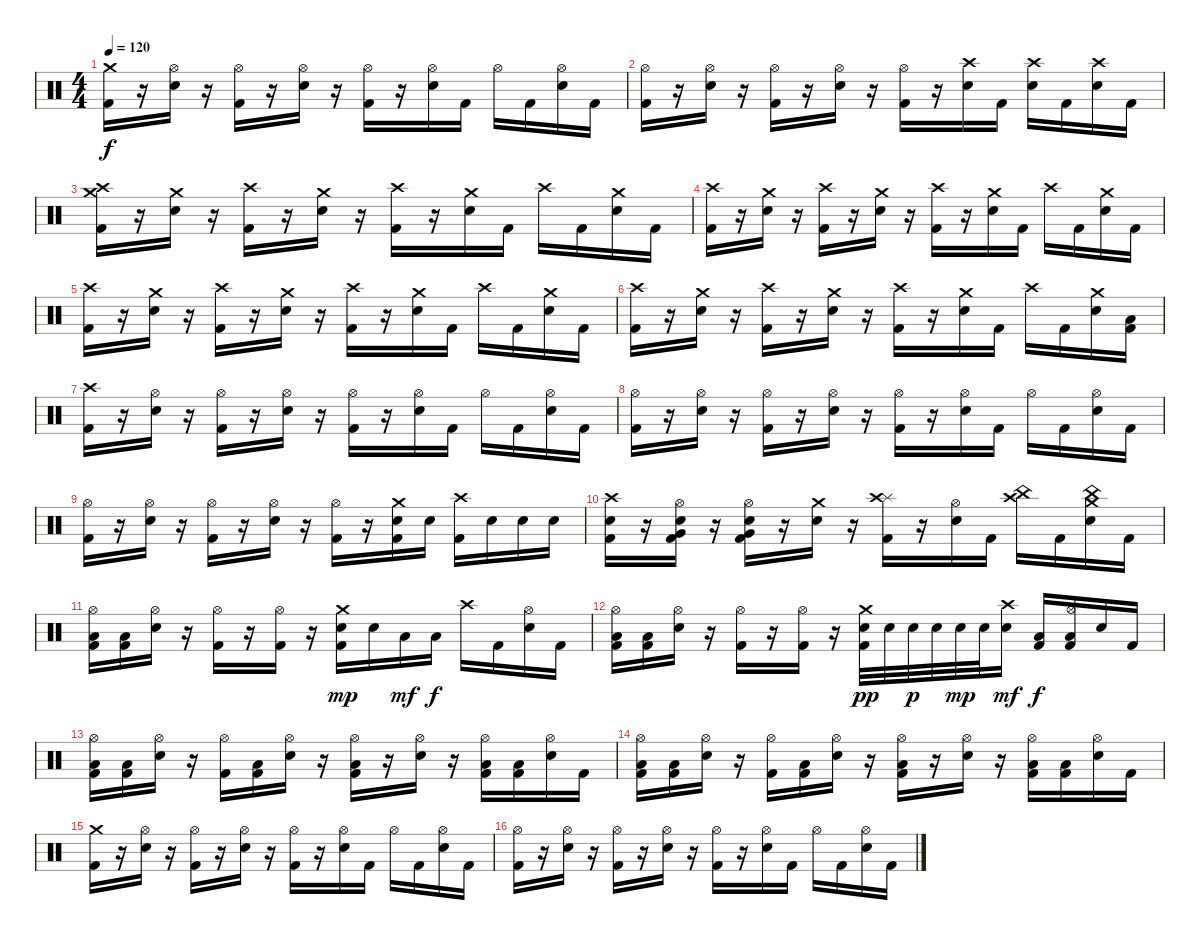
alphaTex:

\track "" {instrument percussion}
\staff {score}
\articulation defaults
\ts (4 4)
\tempo 120
\clef neutral
\ks c
("Crash medium (hit)" "Kick (hit) 2").16{dy f} r.16 ("Hi-Hat (open)" "Electric Snare (hit)").16 r.16 ("Hi-Hat (open)" "Kick (hit) 2").16 r.16 ("Hi-Hat (open)" "Electric Snare (hit)").16 r.16 ("Hi-Hat (open)" "Kick (hit) 2").16 r.16 ("Hi-Hat (open)" "Electric Snare (hit)").16 "Kick (hit) 2".16 "Hi-Hat (open)".16 "Kick (hit) 2".16 ("Hi-Hat (open)" "Electric Snare (hit)").16 "Kick (hit) 2".16 |
("Hi-Hat (open)" "Kick (hit) 2").16 r.16 ("Hi-Hat (open)" "Electric Snare (hit)").16 r.16 ("Hi-Hat (open)" "Kick (hit) 2").16 r.16 ("Hi-Hat (open)" "Electric Snare (hit)").16 r.16 ("Hi-Hat (open)" "Kick (hit) 2").16 r.16 ("Crash high (hit)" "Electric Snare (hit)").16 "Kick (hit) 2".16 ("Crash high (hit)" "Electric Snare (hit)").16 "Kick (hit) 2".16 ("Crash high (hit)" "Electric Snare (hit)").16 "Kick (hit) 2".16 |
("Crash medium (hit)" "Crash high (hit)" "Kick (hit) 2").16 r.16 ("Crash medium (hit)" "Electric Snare (hit)").16 r.16 ("Crash high (hit)" "Kick (hit) 2").16 r.16 ("Crash medium (hit)" "Electric Snare (hit)").16 r.16 ("Crash high (hit)" "Kick (hit) 2").16 r.16 ("Crash medium (hit)" "Electric Snare (hit)").16 "Kick (hit) 2".16 "Crash high (hit)".16 "Kick (hit) 2".16 ("Crash medium (hit)" "Electric Snare (hit)").16 "Kick (hit) 2".16 |
("Crash high (hit)" "Kick (hit) 2").16 r.16 ("Crash medium (hit)" "Electric Snare (hit)").16 r.16 ("Crash high (hit)" "Kick (hit) 2").16 r.16 ("Crash medium (hit)" "Electric Snare (hit)").16 r.16 ("Crash high (hit)" "Kick (hit) 2").16 r.16 ("Crash medium (hit)" "Electric Snare (hit)").16 "Kick (hit) 2".16 "Crash high (hit)".16 "Kick (hit) 2".16 ("Crash medium (hit)" "Electric Snare (hit)").16 "Kick (hit) 2".16 |
("Crash high (hit)" "Kick (hit) 2").16 r.16 ("Crash medium (hit)" "Electric Snare (hit)").16 r.16 ("Crash high (hit)" "Kick (hit) 2").16 r.16 ("Crash medium (hit)" "Electric Snare (hit)").16 r.16 ("Crash high (hit)" "Kick (hit) 2").16 r.16 ("Crash medium (hit)" "Electric Snare (hit)").16 "Kick (hit) 2".16 "Crash high (hit)".16 "Kick (hit) 2".16 ("Crash medium (hit)" "Electric Snare (hit)").16 "Kick (hit) 2".16 |
("Crash high (hit)" "Kick (hit) 2").16 r.16 ("Crash medium (hit)" "Electric Snare (hit)").16 r.16 ("Crash high (hit)" "Kick (hit) 2").16 r.16 ("Crash medium (hit)" "Electric Snare (hit)").16 r.16 ("Crash high (hit)" "Kick (hit) 2").16 r.16 ("Crash medium (hit)" "Electric Snare (hit)").16 "Kick (hit) 2".16 "Crash high (hit)".16 "Kick (hit) 2".16 ("Crash medium (hit)" "Electric Snare (hit)").16 ("Low Tom (hit)" "Kick (hit) 2").16 |
("Crash high (hit)" "Kick (hit) 2").16 r.16 ("Hi-Hat (open)" "Electric Snare (hit)").16 r.16 ("Hi-Hat (open)" "Kick (hit) 2").16 r.16 ("Hi-Hat (open)" "Electric Snare (hit)").16 r.16 ("Hi-Hat (open)" "Kick (hit) 2").16 r.16 ("Hi-Hat (open)" "Electric Snare (hit)").16 "Kick (hit) 2".16 "Hi-Hat (open)".16 "Kick (hit) 2".16 ("Hi-Hat (open)" "Electric Snare (hit)").16 "Kick (hit) 2".16 |
("Hi-Hat (open)" "Kick (hit) 2").16 r.16 ("Hi-Hat (open)" "Electric Snare (hit)").16 r.16 ("Hi-Hat (open)" "Kick (hit) 2").16 r.16 ("Hi-Hat (open)" "Electric Snare (hit)").16 r.16 ("Hi-Hat (open)" "Kick (hit) 2").16 r.16 ("Hi-Hat (open)" "Electric Snare (hit)").16 "Kick (hit) 2".16 "Hi-Hat (open)".16 "Kick (hit) 2".16 ("Hi-Hat (open)" "Electric Snare (hit)").16 "Kick (hit) 2".16 |
("Hi-Hat (open)" "Kick (hit) 2").16 r.16 ("Hi-Hat (open)" "Electric Snare (hit)").16 r.16 ("Hi-Hat (open)" "Kick (hit) 2").16 r.16 ("Hi-Hat (open)" "Electric Snare (hit)").16 r.16 ("Hi-Hat (open)" "Kick (hit) 2").16 r.16 ("Crash medium (hit)" "Electric Snare (hit)" "Kick (hit) 2").16 "Electric Snare (hit)".16 ("Crash high (hit)" "Kick (hit) 2").16 "Electric Snare (hit)".16 "Electric Snare (hit)".16 "Electric Snare (hit)".16 |
("Crash high (hit)" "Electric Snare (hit)" "Kick (hit) 2").16 r.16 ("Hi-Hat (open)" "Electric Snare (hit)" "Very Low Tom (hit)" "Kick (hit) 2").16 r.16 ("Hi-Hat (open)" "Electric Snare (hit)" "Very Low Tom (hit)" "Kick (hit) 2").16 r.16 ("Crash medium (hit)" "Electric Snare (hit)").16 r.16 ("Splash (hit)" "Crash high (hit)" "Kick (hit) 2").16 r.16 ("Hi-Hat (open)" "Electric Snare (hit)").16 "Kick (hit) 2".16 ("Crash high (hit)" "China (hit)").16 "Kick (hit) 2".16 ("Crash medium (hit)" "China (hit)" "Electric Snare (hit)").16 "Kick (hit) 2".16 |
("Hi-Hat (open)" "Kick (hit) 2" "Low Tom (hit)").16 ("Kick (hit) 2" "Low Tom (hit)").16 ("Hi-Hat (open)" "Electric Snare (hit)").16 r.16 ("Hi-Hat (open)" "Kick (hit) 2").16 r.16 ("Hi-Hat (open)" "Kick (hit) 2").16 r.16 ("Crash medium (hit)" "Electric Snare (hit)" "Kick (hit) 2").16{dy mp} "Electric Snare (hit)".16 "Low Tom (hit)".16{dy mf} "Low Tom (hit)".16{dy f} "Crash high (hit)".16 "Kick (hit) 2".16 ("Hi-Hat (open)" "Electric Snare (hit)").16 "Kick (hit) 2".16 |
("Hi-Hat (open)" "Kick (hit) 2" "Low Tom (hit)").16 ("Kick (hit) 2" "Low Tom (hit)").16 ("Hi-Hat (open)" "Electric Snare (hit)").16 r.16 ("Hi-Hat (open)" "Kick (hit) 2").16 r.16 ("Hi-Hat (open)" "Kick (hit) 2").16 r.16 ("Crash medium (hit)" "Electric Snare (hit)" "Kick (hit) 2").32{dy pp} "Electric Snare (hit)".32 "Electric Snare (hit)".32{dy p} "Electric Snare (hit)".32 "Electric Snare (hit)".32{dy mp} "Electric Snare (hit)".32 ("Crash high (hit)" "Electric Snare (hit)").16{dy mf} ("Low Tom (hit)" "Kick (hit) 2").16{dy f} ("Hi-Hat (open)" "Low Tom (hit)" "Kick (hit) 2").16 "Electric Snare (hit)".16 "Kick (hit) 2".16 |
("Hi-Hat (open)" "Low Tom (hit)" "Kick (hit) 2").16 ("Low Tom (hit)" "Kick (hit) 2").16 ("Hi-Hat (open)" "Electric Snare (hit)").16 r.16 ("Hi-Hat (open)" "Kick (hit) 2").16 ("Low Tom (hit)" "Kick (hit) 2").16 ("Hi-Hat (open)" "Electric Snare (hit)").16 r.16 ("Hi-Hat (open)" "Low Tom (hit)" "Kick (hit) 2").16 r.16 ("Hi-Hat (open)" "Electric Snare (hit)").16 r.16 ("Hi-Hat (open)" "Low Tom (hit)" "Kick (hit) 2").16 ("Low Tom (hit)" "Kick (hit) 2").16 ("Hi-Hat (open)" "Electric Snare (hit)").16 "Kick (hit) 2".16 |
("Hi-Hat (open)" "Low Tom (hit)" "Kick (hit) 2").16 ("Low Tom (hit)" "Kick (hit) 2").16 ("Hi-Hat (open)" "Electric Snare (hit)").16 r.16 ("Hi-Hat (open)" "Kick (hit) 2").16 ("Low Tom (hit)" "Kick (hit) 2").16 ("Hi-Hat (open)" "Electric Snare (hit)").16 r.16 ("Hi-Hat (open)" "Low Tom (hit)" "Kick (hit) 2").16 r.16 ("Hi-Hat (open)" "Electric Snare (hit)").16 r.16 ("Hi-Hat (open)" "Low Tom (hit)" "Kick (hit) 2").16 ("Low Tom (hit)" "Kick (hit) 2").16 ("Hi-Hat (open)" "Electric Snare (hit)").16 "Kick (hit) 2".16 |
("Crash medium (hit)" "Kick (hit) 2").16 r.16 ("Hi-Hat (open)" "Electric Snare (hit)").16 r.16 ("Hi-Hat (open)" "Kick (hit) 2").16 r.16 ("Hi-Hat (open)" "Electric Snare (hit)").16 r.16 ("Hi-Hat (open)" "Kick (hit) 2").16 r.16 ("Hi-Hat (open)" "Electric Snare (hit)").16 "Kick (hit) 2".16 "Hi-Hat (open)".16 "Kick (hit) 2".16 ("Hi-Hat (open)" "Electric Snare (hit)").16 "Kick (hit) 2".16 |
("Hi-Hat (open)" "Kick (hit) 2").16 r.16 ("Hi-Hat (open)" "Electric Snare (hit)").16 r.16 ("Hi-Hat (open)" "Kick (hit) 2").16 r.16 ("Hi-Hat (open)" "Electric Snare (hit)").16 r.16 ("Hi-Hat (open)" "Kick (hit) 2").16 r.16 ("Hi-Hat (open)" "Electric Snare (hit)").16 "Kick (hit) 2".16 "Hi-Hat (open)".16 "Kick (hit) 2".16 ("Hi-Hat (open)" "Electric Snare (hit)").16 "Kick (hit) 2".16
